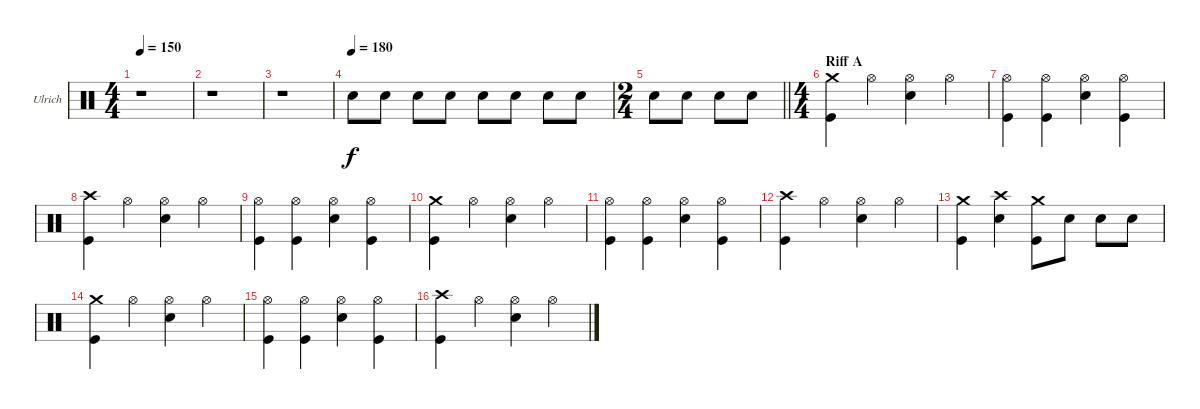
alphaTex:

\bracketExtendMode groupsimilarinstruments
\firstSystemTrackNameOrientation horizontal
\otherSystemsTrackNameOrientation horizontal
\track ("Drumkit" "Ulrich") {instrument percussion}
\staff {score}
\articulation defaults
\ts (4 4)
\tempo 150
\clef neutral
\ks c
r.1{dy f} |
r.1 |
r.1 |
\tempo (180)
"Snare (hit) 2".8 "Snare (hit) 2".8 "Snare (hit) 2".8 "Snare (hit) 2".8 "Snare (hit) 2".8 "Snare (hit) 2".8 "Snare (hit) 2".8 "Snare (hit) 2".8 |
\ts (2 4)
\beaming (8 2 2)
\barLineRight lightlight "Snare (hit) 2".8 "Snare (hit) 2".8 "Snare (hit) 2".8 "Snare (hit) 2".8
|
\ts (4 4)
\beaming (8 2 2 2 2)
\section ("" "Riff A")
("Crash medium (hit)" "Kick (hit)").4 "Hi-Hat (open)".4 ("Hi-Hat (open)" "Snare (hit) 2").4 "Hi-Hat (open)".4 |
("Hi-Hat (open)" "Kick (hit)").4 ("Hi-Hat (open)" "Kick (hit)").4 ("Hi-Hat (open)" "Snare (hit) 2").4 ("Hi-Hat (open)" "Kick (hit)").4 |
("Crash high (hit)" "Kick (hit)").4 "Hi-Hat (open)".4 ("Hi-Hat (open)" "Snare (hit) 2").4 "Hi-Hat (open)".4 |
("Hi-Hat (open)" "Kick (hit)").4 ("Hi-Hat (open)" "Kick (hit)").4 ("Hi-Hat (open)" "Snare (hit) 2").4 ("Hi-Hat (open)" "Kick (hit)").4 |
("Crash medium (hit)" "Kick (hit)").4 "Hi-Hat (open)".4 ("Hi-Hat (open)" "Snare (hit) 2").4 "Hi-Hat (open)".4 |
("Hi-Hat (open)" "Kick (hit)").4 ("Hi-Hat (open)" "Kick (hit)").4 ("Hi-Hat (open)" "Snare (hit) 2").4 ("Hi-Hat (open)" "Kick (hit)").4 |
("Crash high (hit)" "Kick (hit)").4 "Hi-Hat (open)".4 ("Hi-Hat (open)" "Snare (hit) 2").4 "Hi-Hat (open)".4 |
("Crash medium (hit)" "Kick (hit)").4 ("Crash high (hit)" "Snare (hit) 2").4 ("Crash medium (hit)" "Kick (hit)").8 "Snare (hit) 2".8 "Snare (hit) 2".8 "Snare (hit) 2".8 |
("Crash medium (hit)" "Kick (hit)").4 "Hi-Hat (open)".4 ("Hi-Hat (open)" "Snare (hit) 2").4 "Hi-Hat (open)".4 |
("Hi-Hat (open)" "Kick (hit)").4 ("Hi-Hat (open)" "Kick (hit)").4 ("Hi-Hat (open)" "Snare (hit) 2").4 ("Hi-Hat (open)" "Kick (hit)").4 |
("Crash high (hit)" "Kick (hit)").4 "Hi-Hat (open)".4 ("Hi-Hat (open)" "Snare (hit) 2").4 "Hi-Hat (open)".4
